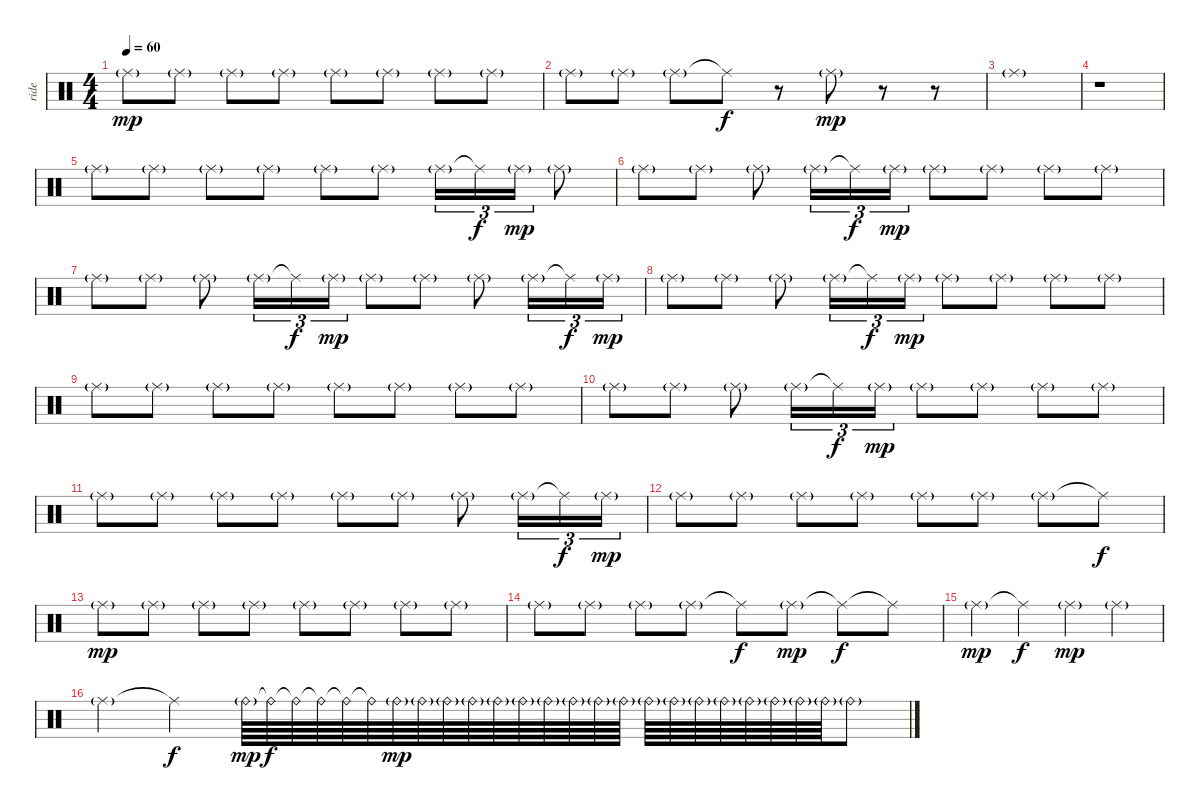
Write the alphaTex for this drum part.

\track ("ride" "ride") {instrument percussion}
\staff {score}
\articulation defaults
\ts (4 4)
\tempo 60
\clef neutral
\ks c "Ride (middle)"{g}.8{dy mp} "Ride (middle)"{g}.8 "Ride (middle)"{g}.8 "Ride (middle)"{g}.8 "Ride (middle)"{g}.8 "Ride (middle)"{g}.8 "Ride (middle)"{g}.8 "Ride (middle)"{g}.8
|
"Ride (middle)"{g}.8 "Ride (middle)"{g}.8 "Ride (middle)"{g}.8 "Ride (middle)"{t}.8{dy f} r.8 "Ride (middle)"{g}.8{dy mp} r.8 r.8 |
"Ride (middle)"{g}.1 |
r.1 |
"Ride (middle)"{g}.8 "Ride (middle)"{g}.8 "Ride (middle)"{g}.8 "Ride (middle)"{g}.8 "Ride (middle)"{g}.8 "Ride (middle)"{g}.8 "Ride (middle)"{g}.16{tu (3 2)} "Ride (middle)"{t}.16{tu (3 2) dy f} "Ride (middle)"{g}.16{tu (3 2) dy mp} "Ride (middle)"{g}.8 |
"Ride (middle)"{g}.8 "Ride (middle)"{g}.8 "Ride (middle)"{g}.8 "Ride (middle)"{g}.16{tu (3 2)} "Ride (middle)"{t}.16{tu (3 2) dy f} "Ride (middle)"{g}.16{tu (3 2) dy mp} "Ride (middle)"{g}.8 "Ride (middle)"{g}.8 "Ride (middle)"{g}.8 "Ride (middle)"{g}.8 |
"Ride (middle)"{g}.8 "Ride (middle)"{g}.8 "Ride (middle)"{g}.8 "Ride (middle)"{g}.16{tu (3 2)} "Ride (middle)"{t}.16{tu (3 2) dy f} "Ride (middle)"{g}.16{tu (3 2) dy mp} "Ride (middle)"{g}.8 "Ride (middle)"{g}.8 "Ride (middle)"{g}.8 "Ride (middle)"{g}.16{tu (3 2)} "Ride (middle)"{t}.16{tu (3 2) dy f} "Ride (middle)"{g}.16{tu (3 2) dy mp} |
"Ride (middle)"{g}.8 "Ride (middle)"{g}.8 "Ride (middle)"{g}.8 "Ride (middle)"{g}.16{tu (3 2)} "Ride (middle)"{t}.16{tu (3 2) dy f} "Ride (middle)"{g}.16{tu (3 2) dy mp} "Ride (middle)"{g}.8 "Ride (middle)"{g}.8 "Ride (middle)"{g}.8 "Ride (middle)"{g}.8 |
"Ride (middle)"{g}.8 "Ride (middle)"{g}.8 "Ride (middle)"{g}.8 "Ride (middle)"{g}.8 "Ride (middle)"{g}.8 "Ride (middle)"{g}.8 "Ride (middle)"{g}.8 "Ride (middle)"{g}.8 |
"Ride (middle)"{g}.8 "Ride (middle)"{g}.8 "Ride (middle)"{g}.8 "Ride (middle)"{g}.16{tu (3 2)} "Ride (middle)"{t}.16{tu (3 2) dy f} "Ride (middle)"{g}.16{tu (3 2) dy mp} "Ride (middle)"{g}.8 "Ride (middle)"{g}.8 "Ride (middle)"{g}.8 "Ride (middle)"{g}.8 |
"Ride (middle)"{g}.8 "Ride (middle)"{g}.8 "Ride (middle)"{g}.8 "Ride (middle)"{g}.8 "Ride (middle)"{g}.8 "Ride (middle)"{g}.8 "Ride (middle)"{g}.8 "Ride (middle)"{g}.16{tu (3 2)} "Ride (middle)"{t}.16{tu (3 2) dy f} "Ride (middle)"{g}.16{tu (3 2) dy mp} |
"Ride (middle)"{g}.8 "Ride (middle)"{g}.8 "Ride (middle)"{g}.8 "Ride (middle)"{g}.8 "Ride (middle)"{g}.8 "Ride (middle)"{g}.8 "Ride (middle)"{g}.8 "Ride (middle)"{t}.8{dy f} |
"Ride (middle)"{g}.8{dy mp} "Ride (middle)"{g}.8 "Ride (middle)"{g}.8 "Ride (middle)"{g}.8 "Ride (middle)"{g}.8 "Ride (middle)"{g}.8 "Ride (middle)"{g}.8 "Ride (middle)"{g}.8 |
"Ride (middle)"{g}.8 "Ride (middle)"{g}.8 "Ride (middle)"{g}.8 "Ride (middle)"{g}.8 "Ride (middle)"{t}.8{dy f} "Ride (middle)"{g}.8{dy mp} "Ride (middle)"{t}.8{dy f} "Ride (middle)"{t}.8 |
"Ride (middle)"{g}.4{dy mp} "Ride (middle)"{t}.4{dy f} "Ride (middle)"{g}.4{dy mp} "Ride (middle)"{g}.4 |
"Ride (middle)"{g}.4 "Ride (middle)"{t}.4{dy f} "Ride (bell)"{g}.64{dy mp} "Ride (bell)"{t}.64{dy f} "Ride (bell)"{t}.64 "Ride (bell)"{t}.64 "Ride (bell)"{t}.64 "Ride (bell)"{t}.64 "Ride (bell)"{g}.64{dy mp} "Ride (bell)"{g}.64 "Ride (bell)"{g}.64 "Ride (bell)"{g}.64 "Ride (bell)"{g}.64 "Ride (bell)"{g}.64 "Ride (bell)"{g}.64 "Ride (bell)"{g}.64 "Ride (bell)"{g}.64 "Ride (bell)"{g}.64 "Ride (bell)"{g}.64 "Ride (bell)"{g}.64 "Ride (bell)"{g}.64 "Ride (bell)"{g}.64 "Ride (bell)"{g}.64 "Ride (bell)"{g}.64 "Ride (bell)"{g}.64 "Ride (bell)"{g}.64 "Ride (bell)"{g}.8
